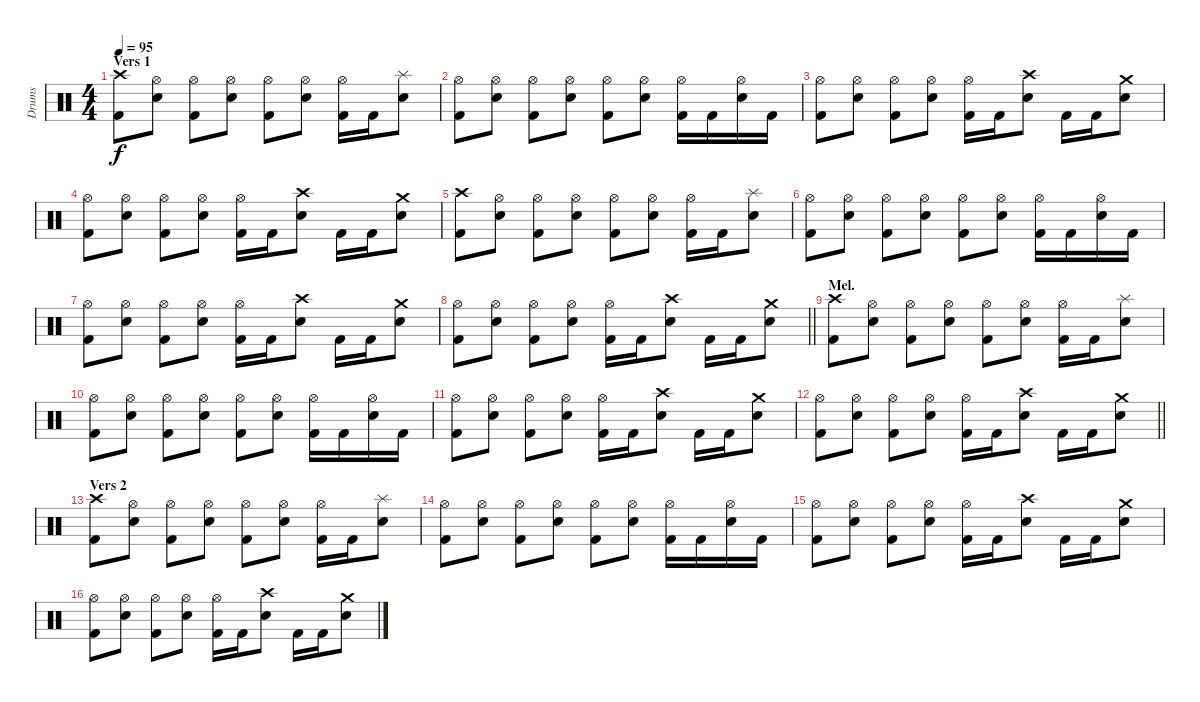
\track ("Drums" "Drums") {instrument percussion}
\staff {score}
\articulation defaults
\ts (4 4)
\section ("" "Vers 1")
\tempo 95
\clef neutral
\ks c
("Crash high (hit)" "Kick (hit) 2").8{dy f} ("Hi-Hat (open)" "Snare (hit) 2").8 ("Hi-Hat (open)" "Kick (hit) 2").8 ("Hi-Hat (open)" "Snare (hit) 2").8 ("Hi-Hat (open)" "Kick (hit) 2").8 ("Hi-Hat (open)" "Snare (hit) 2").8 ("Hi-Hat (open)" "Kick (hit) 2").16 "Kick (hit) 2".16 ("Splash (hit)" "Snare (hit) 2").8 |
("Hi-Hat (open)" "Kick (hit) 2").8 ("Hi-Hat (open)" "Snare (hit) 2").8 ("Hi-Hat (open)" "Kick (hit) 2").8 ("Hi-Hat (open)" "Snare (hit) 2").8 ("Hi-Hat (open)" "Kick (hit) 2").8 ("Hi-Hat (open)" "Snare (hit) 2").8 ("Hi-Hat (open)" "Kick (hit) 2").16 "Kick (hit) 2".16 ("Hi-Hat (open)" "Snare (hit) 2").16 "Kick (hit) 2".16 |
("Hi-Hat (open)" "Kick (hit) 2").8 ("Hi-Hat (open)" "Snare (hit) 2").8 ("Hi-Hat (open)" "Kick (hit) 2").8 ("Hi-Hat (open)" "Snare (hit) 2").8 ("Hi-Hat (open)" "Kick (hit) 2").16 "Kick (hit) 2".16 ("Crash high (hit)" "Snare (hit) 2").8 "Kick (hit) 2".16 "Kick (hit) 2".16 ("Crash medium (hit)" "Snare (hit) 2").8 |
("Hi-Hat (open)" "Kick (hit) 2").8 ("Hi-Hat (open)" "Snare (hit) 2").8 ("Hi-Hat (open)" "Kick (hit) 2").8 ("Hi-Hat (open)" "Snare (hit) 2").8 ("Hi-Hat (open)" "Kick (hit) 2").16 "Kick (hit) 2".16 ("Crash high (hit)" "Snare (hit) 2").8 "Kick (hit) 2".16 "Kick (hit) 2".16 ("Crash medium (hit)" "Snare (hit) 2").8 |
("Crash high (hit)" "Kick (hit) 2").8 ("Hi-Hat (open)" "Snare (hit) 2").8 ("Hi-Hat (open)" "Kick (hit) 2").8 ("Hi-Hat (open)" "Snare (hit) 2").8 ("Hi-Hat (open)" "Kick (hit) 2").8 ("Hi-Hat (open)" "Snare (hit) 2").8 ("Hi-Hat (open)" "Kick (hit) 2").16 "Kick (hit) 2".16 ("Splash (hit)" "Snare (hit) 2").8 |
("Hi-Hat (open)" "Kick (hit) 2").8 ("Hi-Hat (open)" "Snare (hit) 2").8 ("Hi-Hat (open)" "Kick (hit) 2").8 ("Hi-Hat (open)" "Snare (hit) 2").8 ("Hi-Hat (open)" "Kick (hit) 2").8 ("Hi-Hat (open)" "Snare (hit) 2").8 ("Hi-Hat (open)" "Kick (hit) 2").16 "Kick (hit) 2".16 ("Hi-Hat (open)" "Snare (hit) 2").16 "Kick (hit) 2".16 |
("Hi-Hat (open)" "Kick (hit) 2").8 ("Hi-Hat (open)" "Snare (hit) 2").8 ("Hi-Hat (open)" "Kick (hit) 2").8 ("Hi-Hat (open)" "Snare (hit) 2").8 ("Hi-Hat (open)" "Kick (hit) 2").16 "Kick (hit) 2".16 ("Crash high (hit)" "Snare (hit) 2").8 "Kick (hit) 2".16 "Kick (hit) 2".16 ("Crash medium (hit)" "Snare (hit) 2").8 |
\barLineRight lightlight
("Hi-Hat (open)" "Kick (hit) 2").8 ("Hi-Hat (open)" "Snare (hit) 2").8 ("Hi-Hat (open)" "Kick (hit) 2").8 ("Hi-Hat (open)" "Snare (hit) 2").8 ("Hi-Hat (open)" "Kick (hit) 2").16 "Kick (hit) 2".16 ("Crash high (hit)" "Snare (hit) 2").8 "Kick (hit) 2".16 "Kick (hit) 2".16 ("Crash medium (hit)" "Snare (hit) 2").8 |
\section ("" "Mel.")
("Crash high (hit)" "Kick (hit) 2").8 ("Hi-Hat (open)" "Snare (hit) 2").8 ("Hi-Hat (open)" "Kick (hit) 2").8 ("Hi-Hat (open)" "Snare (hit) 2").8 ("Hi-Hat (open)" "Kick (hit) 2").8 ("Hi-Hat (open)" "Snare (hit) 2").8 ("Hi-Hat (open)" "Kick (hit) 2").16 "Kick (hit) 2".16 ("Splash (hit)" "Snare (hit) 2").8 |
("Hi-Hat (open)" "Kick (hit) 2").8 ("Hi-Hat (open)" "Snare (hit) 2").8 ("Hi-Hat (open)" "Kick (hit) 2").8 ("Hi-Hat (open)" "Snare (hit) 2").8 ("Hi-Hat (open)" "Kick (hit) 2").8 ("Hi-Hat (open)" "Snare (hit) 2").8 ("Hi-Hat (open)" "Kick (hit) 2").16 "Kick (hit) 2".16 ("Hi-Hat (open)" "Snare (hit) 2").16 "Kick (hit) 2".16 |
("Hi-Hat (open)" "Kick (hit) 2").8 ("Hi-Hat (open)" "Snare (hit) 2").8 ("Hi-Hat (open)" "Kick (hit) 2").8 ("Hi-Hat (open)" "Snare (hit) 2").8 ("Hi-Hat (open)" "Kick (hit) 2").16 "Kick (hit) 2".16 ("Crash high (hit)" "Snare (hit) 2").8 "Kick (hit) 2".16 "Kick (hit) 2".16 ("Crash medium (hit)" "Snare (hit) 2").8 |
\barLineRight lightlight
("Hi-Hat (open)" "Kick (hit) 2").8 ("Hi-Hat (open)" "Snare (hit) 2").8 ("Hi-Hat (open)" "Kick (hit) 2").8 ("Hi-Hat (open)" "Snare (hit) 2").8 ("Hi-Hat (open)" "Kick (hit) 2").16 "Kick (hit) 2".16 ("Crash high (hit)" "Snare (hit) 2").8 "Kick (hit) 2".16 "Kick (hit) 2".16 ("Crash medium (hit)" "Snare (hit) 2").8 |
\section ("" "Vers 2")
("Crash high (hit)" "Kick (hit) 2").8 ("Hi-Hat (open)" "Snare (hit) 2").8 ("Hi-Hat (open)" "Kick (hit) 2").8 ("Hi-Hat (open)" "Snare (hit) 2").8 ("Hi-Hat (open)" "Kick (hit) 2").8 ("Hi-Hat (open)" "Snare (hit) 2").8 ("Hi-Hat (open)" "Kick (hit) 2").16 "Kick (hit) 2".16 ("Splash (hit)" "Snare (hit) 2").8 |
("Hi-Hat (open)" "Kick (hit) 2").8 ("Hi-Hat (open)" "Snare (hit) 2").8 ("Hi-Hat (open)" "Kick (hit) 2").8 ("Hi-Hat (open)" "Snare (hit) 2").8 ("Hi-Hat (open)" "Kick (hit) 2").8 ("Hi-Hat (open)" "Snare (hit) 2").8 ("Hi-Hat (open)" "Kick (hit) 2").16 "Kick (hit) 2".16 ("Hi-Hat (open)" "Snare (hit) 2").16 "Kick (hit) 2".16 |
("Hi-Hat (open)" "Kick (hit) 2").8 ("Hi-Hat (open)" "Snare (hit) 2").8 ("Hi-Hat (open)" "Kick (hit) 2").8 ("Hi-Hat (open)" "Snare (hit) 2").8 ("Hi-Hat (open)" "Kick (hit) 2").16 "Kick (hit) 2".16 ("Crash high (hit)" "Snare (hit) 2").8 "Kick (hit) 2".16 "Kick (hit) 2".16 ("Crash medium (hit)" "Snare (hit) 2").8 |
("Hi-Hat (open)" "Kick (hit) 2").8 ("Hi-Hat (open)" "Snare (hit) 2").8 ("Hi-Hat (open)" "Kick (hit) 2").8 ("Hi-Hat (open)" "Snare (hit) 2").8 ("Hi-Hat (open)" "Kick (hit) 2").16 "Kick (hit) 2".16 ("Crash high (hit)" "Snare (hit) 2").8 "Kick (hit) 2".16 "Kick (hit) 2".16 ("Crash medium (hit)" "Snare (hit) 2").8
